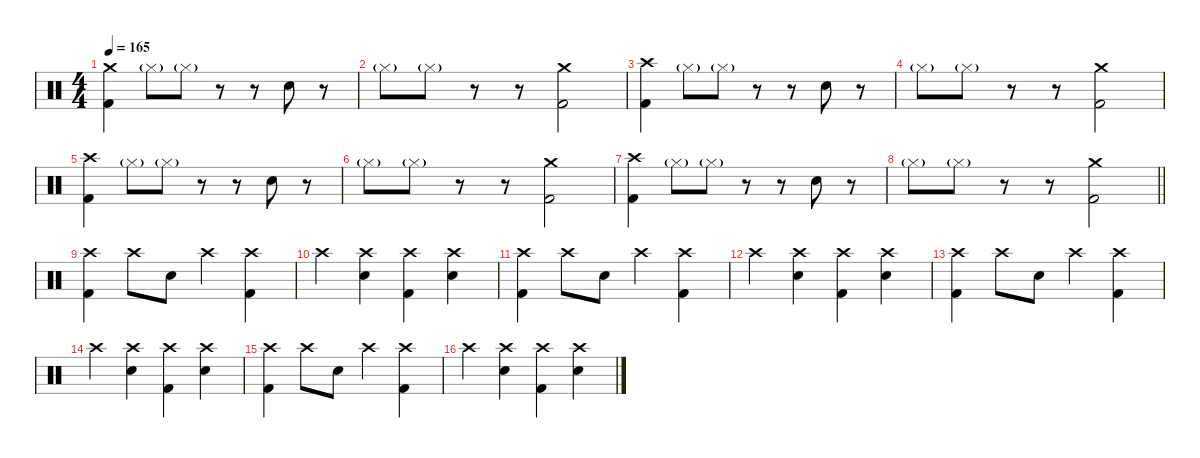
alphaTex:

\defaultSystemsLayout 4
\hideDynamics
\bracketExtendMode nobrackets
\singleTrackTrackNamePolicy hidden
\multiTrackTrackNamePolicy hidden
\firstSystemTrackNameMode fullname
\otherSystemsTrackNameOrientation horizontal
\track ("Marty Chapman (Drums)" "drm.") {instrument percussion}
\staff {score}
\articulation defaults
\ts (4 4)
\tempo 165
\clef neutral
\ks c
("Crash medium (hit)" "Kick (hit) 2").4{dy f beam Down} "Hi-Hat (closed)"{g}.8{beam Down} "Hi-Hat (closed)"{g}.8{beam Down} r.8{beam Down} r.8{beam Down} "Snare (hit) 2".8{beam Down} r.8{beam Down} |
"Hi-Hat (closed)"{g}.8{beam Down} "Hi-Hat (closed)"{g}.8{beam Down} r.8{beam Down} r.8{beam Down} ("Crash medium (hit)" "Kick (hit) 2").2{beam Down} |
("Crash high (hit)" "Kick (hit) 2").4{beam Down} "Hi-Hat (closed)"{g}.8{beam Down} "Hi-Hat (closed)"{g}.8{beam Down} r.8{beam Down} r.8{beam Down} "Snare (hit) 2".8{beam Down} r.8{beam Down} |
"Hi-Hat (closed)"{g}.8{beam Down} "Hi-Hat (closed)"{g}.8{beam Down} r.8{beam Down} r.8{beam Down} ("Crash medium (hit)" "Kick (hit) 2").2{beam Down} |
("Crash high (hit)" "Kick (hit) 2").4{beam Down} "Hi-Hat (closed)"{g}.8{beam Down} "Hi-Hat (closed)"{g}.8{beam Down} r.8{beam Down} r.8{beam Down} "Snare (hit) 2".8{beam Down} r.8{beam Down} |
"Hi-Hat (closed)"{g}.8{beam Down} "Hi-Hat (closed)"{g}.8{beam Down} r.8{beam Down} r.8{beam Down} ("Crash medium (hit)" "Kick (hit) 2").2{beam Down} |
("Crash high (hit)" "Kick (hit) 2").4{beam Down} "Hi-Hat (closed)"{g}.8{beam Down} "Hi-Hat (closed)"{g}.8{beam Down} r.8{beam Down} r.8{beam Down} "Snare (hit) 2".8{beam Down} r.8{beam Down} |
\barLineRight lightlight "Hi-Hat (closed)"{g}.8{beam Down} "Hi-Hat (closed)"{g}.8{beam Down}
r.8{beam Down} r.8{beam Down} ("Crash medium (hit)" "Kick (hit) 2").2{beam Down} |
("Crash high (hit)" "Kick (hit) 2").4{beam Down} "Crash high (hit)".8{beam Down} "Snare (hit) 2".8{beam Down} "Crash high (hit)".4{beam Down} ("Crash high (hit)" "Kick (hit) 2").4{beam Down} |
"Crash high (hit)".4{beam Down} ("Crash high (hit)" "Snare (hit) 2").4{beam Down} ("Crash high (hit)" "Kick (hit) 2").4{beam Down} ("Crash high (hit)" "Snare (hit) 2").4{beam Down} |
("Crash high (hit)" "Kick (hit) 2").4{beam Down} "Crash high (hit)".8{beam Down} "Snare (hit) 2".8{beam Down} "Crash high (hit)".4{beam Down} ("Crash high (hit)" "Kick (hit) 2").4{beam Down} |
"Crash high (hit)".4{beam Down} ("Crash high (hit)" "Snare (hit) 2").4{beam Down} ("Crash high (hit)" "Kick (hit) 2").4{beam Down} ("Crash high (hit)" "Snare (hit) 2").4{beam Down} |
("Crash high (hit)" "Kick (hit) 2").4{beam Down} "Crash high (hit)".8{beam Down} "Snare (hit) 2".8{beam Down} "Crash high (hit)".4{beam Down} ("Crash high (hit)" "Kick (hit) 2").4{beam Down} |
"Crash high (hit)".4{beam Down} ("Crash high (hit)" "Snare (hit) 2").4{beam Down} ("Crash high (hit)" "Kick (hit) 2").4{beam Down} ("Crash high (hit)" "Snare (hit) 2").4{beam Down} |
("Crash high (hit)" "Kick (hit) 2").4{beam Down} "Crash high (hit)".8{beam Down} "Snare (hit) 2".8{beam Down} "Crash high (hit)".4{beam Down} ("Crash high (hit)" "Kick (hit) 2").4{beam Down} |
"Crash high (hit)".4{beam Down} ("Crash high (hit)" "Snare (hit) 2").4{beam Down} ("Crash high (hit)" "Kick (hit) 2").4{beam Down} ("Crash high (hit)" "Snare (hit) 2").4{beam Down}
